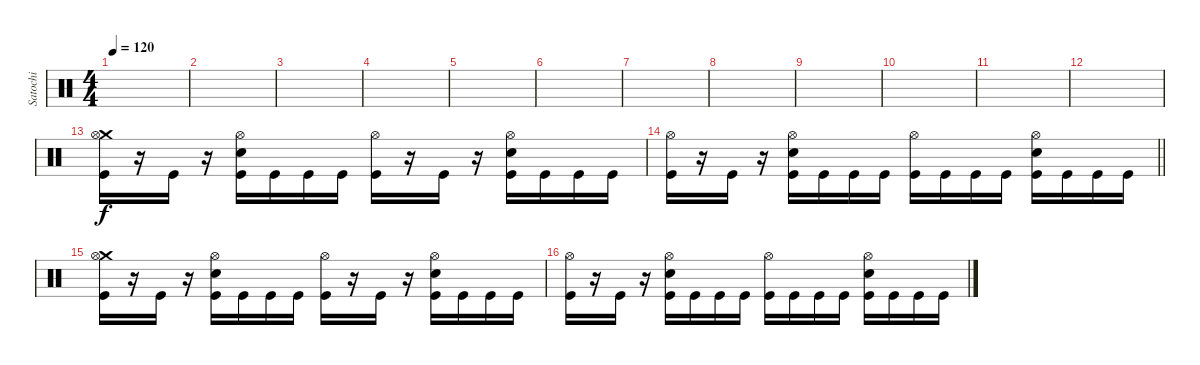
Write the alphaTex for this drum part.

\track ("Satochi" "Satochi") {instrument percussion}
\staff {score}
\articulation defaults
\ts (4 4)
\tempo 120
\clef neutral
\ks c
|
|
|
|
|
|
|
|
|
|
|
|
("Crash medium (hit)" "Hi-Hat (open)" "Kick (hit)").16 r.16 "Kick (hit)".16 r.16 ("Hi-Hat (open)" "Electric Snare (hit)" "Kick (hit)").16 "Kick (hit)".16 "Kick (hit)".16 "Kick (hit)".16 ("Hi-Hat (open)" "Kick (hit)").16 r.16 "Kick (hit)".16 r.16 ("Hi-Hat (open)" "Electric Snare (hit)" "Kick (hit)").16 "Kick (hit)".16 "Kick (hit)".16 "Kick (hit)".16 |
\barLineRight lightlight
("Hi-Hat (open)" "Kick (hit)").16 r.16 "Kick (hit)".16 r.16 ("Hi-Hat (open)" "Electric Snare (hit)" "Kick (hit)").16 "Kick (hit)".16 "Kick (hit)".16 "Kick (hit)".16 ("Hi-Hat (open)" "Kick (hit)").16 "Kick (hit)".16 "Kick (hit)".16 "Kick (hit)".16 ("Hi-Hat (open)" "Electric Snare (hit)" "Kick (hit)").16 "Kick (hit)".16 "Kick (hit)".16 "Kick (hit)".16 |
("Crash medium (hit)" "Hi-Hat (open)" "Kick (hit)").16 r.16 "Kick (hit)".16 r.16 ("Hi-Hat (open)" "Electric Snare (hit)" "Kick (hit)").16 "Kick (hit)".16 "Kick (hit)".16 "Kick (hit)".16 ("Hi-Hat (open)" "Kick (hit)").16 r.16 "Kick (hit)".16 r.16 ("Hi-Hat (open)" "Electric Snare (hit)" "Kick (hit)").16 "Kick (hit)".16 "Kick (hit)".16 "Kick (hit)".16 |
("Hi-Hat (open)" "Kick (hit)").16 r.16 "Kick (hit)".16 r.16 ("Hi-Hat (open)" "Electric Snare (hit)" "Kick (hit)").16 "Kick (hit)".16 "Kick (hit)".16 "Kick (hit)".16 ("Hi-Hat (open)" "Kick (hit)").16 "Kick (hit)".16 "Kick (hit)".16 "Kick (hit)".16 ("Hi-Hat (open)" "Electric Snare (hit)" "Kick (hit)").16 "Kick (hit)".16 "Kick (hit)".16 "Kick (hit)".16
